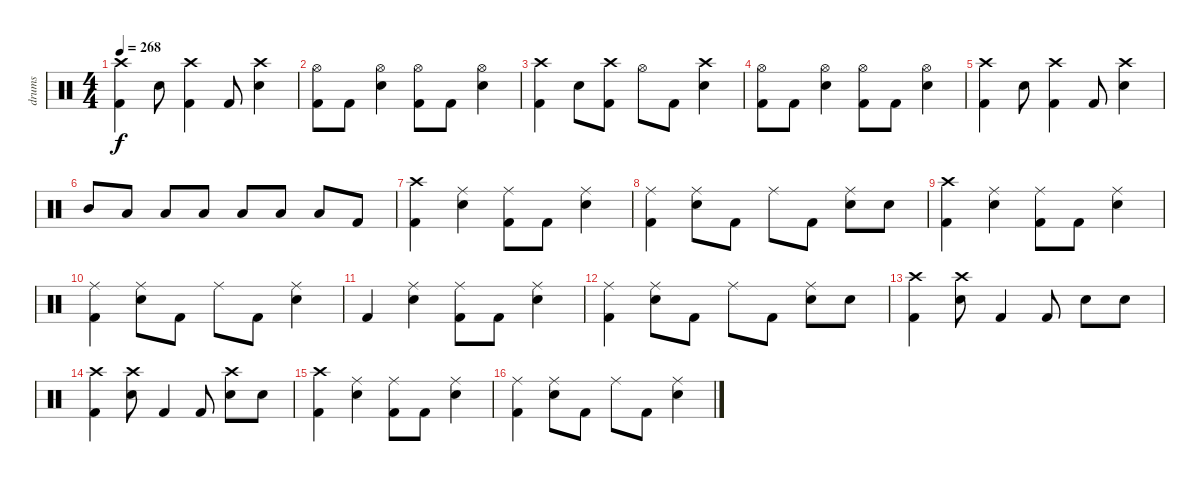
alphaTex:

\track ("drums" "drums") {instrument percussion}
\staff {score}
\articulation defaults
\ts (4 4)
\tempo 268
\clef neutral
\ks c
("Crash high (hit)" "Kick (hit) 2").4{dy f} "Electric Snare (hit)".8 ("Crash high (hit)" "Kick (hit) 2").4 "Kick (hit) 2".8 ("Crash high (hit)" "Electric Snare (hit)").4 |
("Hi-Hat (open)" "Kick (hit) 2").8 "Kick (hit) 2".8 ("Hi-Hat (open)" "Electric Snare (hit)").4 ("Hi-Hat (open)" "Kick (hit) 2").8 "Kick (hit) 2".8 ("Hi-Hat (open)" "Electric Snare (hit)").4 |
("Crash high (hit)" "Kick (hit) 2").4 "Electric Snare (hit)".8 ("Crash high (hit)" "Kick (hit) 2").8 "Hi-Hat (open)".8 "Kick (hit) 2".8 ("Crash high (hit)" "Electric Snare (hit)").4 |
("Hi-Hat (open)" "Kick (hit) 2").8 "Kick (hit) 2".8 ("Hi-Hat (open)" "Electric Snare (hit)").4 ("Hi-Hat (open)" "Kick (hit) 2").8 "Kick (hit) 2".8 ("Hi-Hat (open)" "Electric Snare (hit)").4 |
("Crash high (hit)" "Kick (hit) 2").4 "Electric Snare (hit)".8 ("Crash high (hit)" "Kick (hit) 2").4 "Kick (hit) 2".8 ("Crash high (hit)" "Electric Snare (hit)").4 |
"Mid Tom (hit)".8 "Low Tom (hit)".8 "Low Tom (hit)".8 "Low Floor Tom (hit)".8 "Low Floor Tom (hit)".8 "Low Tom (hit)".8 "Low Tom (hit)".8 "Kick (hit) 2".8 |
("Crash high (hit)" "Kick (hit) 2").4 ("Ride (middle)" "Electric Snare (hit)").4 ("Ride (middle)" "Kick (hit) 2").8 "Kick (hit) 2".8 ("Ride (middle)" "Electric Snare (hit)").4 |
("Ride (middle)" "Kick (hit) 2").4 ("Ride (middle)" "Electric Snare (hit)").8 "Kick (hit) 2".8 "Ride (middle)".8 "Kick (hit) 2".8 ("Ride (middle)" "Electric Snare (hit)").8 "Electric Snare (hit)".8 |
("Crash high (hit)" "Kick (hit) 2").4 ("Ride (middle)" "Electric Snare (hit)").4 ("Ride (middle)" "Kick (hit) 2").8 "Kick (hit) 2".8 ("Ride (middle)" "Electric Snare (hit)").4 |
("Ride (middle)" "Kick (hit) 2").4 ("Ride (middle)" "Electric Snare (hit)").8 "Kick (hit) 2".8 "Ride (middle)".8 "Kick (hit) 2".8 ("Ride (middle)" "Electric Snare (hit)").4 |
"Kick (hit) 2".4 ("Ride (middle)" "Electric Snare (hit)").4 ("Ride (middle)" "Kick (hit) 2").8 "Kick (hit) 2".8 ("Ride (middle)" "Electric Snare (hit)").4 |
("Ride (middle)" "Kick (hit) 2").4 ("Ride (middle)" "Electric Snare (hit)").8 "Kick (hit) 2".8 "Ride (middle)".8 "Kick (hit) 2".8 ("Ride (middle)" "Electric Snare (hit)").8 "Electric Snare (hit)".8 |
("Crash high (hit)" "Kick (hit) 2").4 ("Crash high (hit)" "Electric Snare (hit)").8 "Kick (hit) 2".4 "Kick (hit) 2".8 "Electric Snare (hit)".8 "Electric Snare (hit)".8 |
("Crash high (hit)" "Kick (hit) 2").4 ("Crash high (hit)" "Electric Snare (hit)").8 "Kick (hit) 2".4 "Kick (hit) 2".8 ("Crash high (hit)" "Electric Snare (hit)").8 "Electric Snare (hit)".8 |
("Crash high (hit)" "Kick (hit) 2").4 ("Ride (middle)" "Electric Snare (hit)").4 ("Ride (middle)" "Kick (hit) 2").8 "Kick (hit) 2".8 ("Ride (middle)" "Electric Snare (hit)").4 |
("Ride (middle)" "Kick (hit) 2").4 ("Ride (middle)" "Electric Snare (hit)").8 "Kick (hit) 2".8 "Ride (middle)".8 "Kick (hit) 2".8 ("Ride (middle)" "Electric Snare (hit)").4
